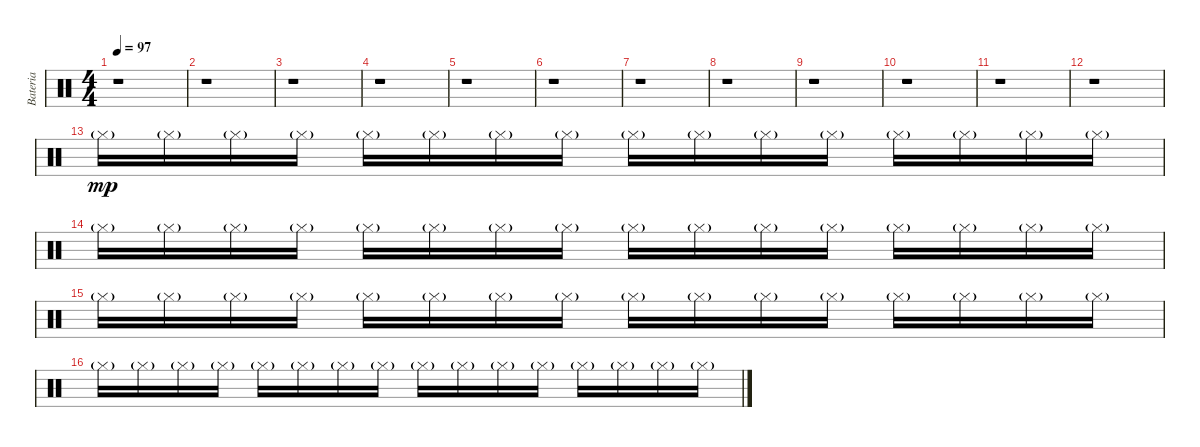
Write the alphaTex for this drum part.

\track ("Bateria" "Bateria") {instrument percussion}
\staff {score}
\articulation defaults
\ts (4 4)
\tempo 97
\clef neutral
\ks c
r.1{dy fff} |
r.1 |
r.1 |
r.1 |
r.1 |
r.1 |
r.1 |
r.1 |
r.1 |
r.1 |
r.1 |
r.1 |
"Hi-Hat (closed)"{g}.16{dy mp} "Hi-Hat (closed)"{g}.16 "Hi-Hat (closed)"{g}.16 "Hi-Hat (closed)"{g}.16 "Hi-Hat (closed)"{g}.16 "Hi-Hat (closed)"{g}.16 "Hi-Hat (closed)"{g}.16 "Hi-Hat (closed)"{g}.16 "Hi-Hat (closed)"{g}.16 "Hi-Hat (closed)"{g}.16 "Hi-Hat (closed)"{g}.16 "Hi-Hat (closed)"{g}.16 "Hi-Hat (closed)"{g}.16 "Hi-Hat (closed)"{g}.16 "Hi-Hat (closed)"{g}.16 "Hi-Hat (closed)"{g}.16 |
"Hi-Hat (closed)"{g}.16 "Hi-Hat (closed)"{g}.16 "Hi-Hat (closed)"{g}.16 "Hi-Hat (closed)"{g}.16 "Hi-Hat (closed)"{g}.16 "Hi-Hat (closed)"{g}.16 "Hi-Hat (closed)"{g}.16 "Hi-Hat (closed)"{g}.16 "Hi-Hat (closed)"{g}.16 "Hi-Hat (closed)"{g}.16 "Hi-Hat (closed)"{g}.16 "Hi-Hat (closed)"{g}.16 "Hi-Hat (closed)"{g}.16 "Hi-Hat (closed)"{g}.16 "Hi-Hat (closed)"{g}.16 "Hi-Hat (closed)"{g}.16 |
"Hi-Hat (closed)"{g}.16 "Hi-Hat (closed)"{g}.16 "Hi-Hat (closed)"{g}.16 "Hi-Hat (closed)"{g}.16 "Hi-Hat (closed)"{g}.16 "Hi-Hat (closed)"{g}.16 "Hi-Hat (closed)"{g}.16 "Hi-Hat (closed)"{g}.16 "Hi-Hat (closed)"{g}.16 "Hi-Hat (closed)"{g}.16 "Hi-Hat (closed)"{g}.16 "Hi-Hat (closed)"{g}.16 "Hi-Hat (closed)"{g}.16 "Hi-Hat (closed)"{g}.16 "Hi-Hat (closed)"{g}.16 "Hi-Hat (closed)"{g}.16 |
"Hi-Hat (closed)"{g}.16 "Hi-Hat (closed)"{g}.16 "Hi-Hat (closed)"{g}.16 "Hi-Hat (closed)"{g}.16 "Hi-Hat (closed)"{g}.16 "Hi-Hat (closed)"{g}.16 "Hi-Hat (closed)"{g}.16 "Hi-Hat (closed)"{g}.16 "Hi-Hat (closed)"{g}.16 "Hi-Hat (closed)"{g}.16 "Hi-Hat (closed)"{g}.16 "Hi-Hat (closed)"{g}.16 "Hi-Hat (closed)"{g}.16 "Hi-Hat (closed)"{g}.16 "Hi-Hat (closed)"{g}.16 "Hi-Hat (closed)"{g}.16
